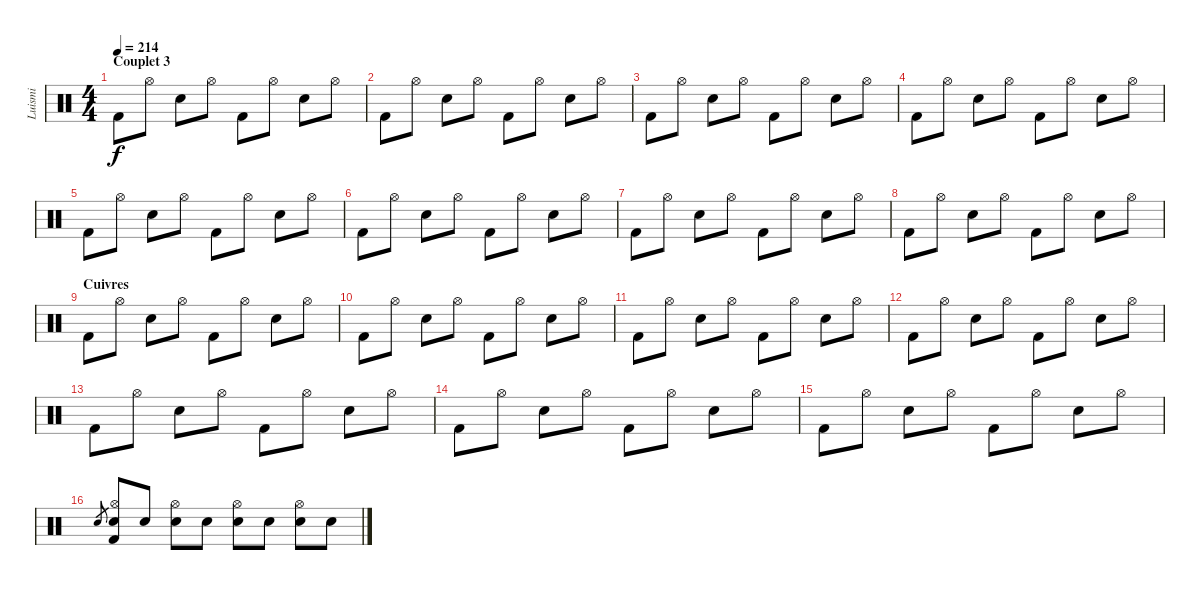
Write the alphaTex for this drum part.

\track ("Luismi" "Luismi") {instrument percussion}
\staff {score}
\articulation defaults
\ts (4 4)
\section ("" "Couplet 3")
\tempo 214
\clef neutral
\ks c "Kick (hit) 2".8{dy f} "Hi-Hat (open)".8 "Snare (hit) 2".8 "Hi-Hat (open)".8 "Kick (hit) 2".8 "Hi-Hat (open)".8 "Snare (hit) 2".8 "Hi-Hat (open)".8
|
"Kick (hit) 2".8 "Hi-Hat (open)".8 "Snare (hit) 2".8 "Hi-Hat (open)".8 "Kick (hit) 2".8 "Hi-Hat (open)".8 "Snare (hit) 2".8 "Hi-Hat (open)".8 |
"Kick (hit) 2".8 "Hi-Hat (open)".8 "Snare (hit) 2".8 "Hi-Hat (open)".8 "Kick (hit) 2".8 "Hi-Hat (open)".8 "Snare (hit) 2".8 "Hi-Hat (open)".8 |
"Kick (hit) 2".8 "Hi-Hat (open)".8 "Snare (hit) 2".8 "Hi-Hat (open)".8 "Kick (hit) 2".8 "Hi-Hat (open)".8 "Snare (hit) 2".8 "Hi-Hat (open)".8 |
"Kick (hit) 2".8 "Hi-Hat (open)".8 "Snare (hit) 2".8 "Hi-Hat (open)".8 "Kick (hit) 2".8 "Hi-Hat (open)".8 "Snare (hit) 2".8 "Hi-Hat (open)".8 |
"Kick (hit) 2".8 "Hi-Hat (open)".8 "Snare (hit) 2".8 "Hi-Hat (open)".8 "Kick (hit) 2".8 "Hi-Hat (open)".8 "Snare (hit) 2".8 "Hi-Hat (open)".8 |
"Kick (hit) 2".8 "Hi-Hat (open)".8 "Snare (hit) 2".8 "Hi-Hat (open)".8 "Kick (hit) 2".8 "Hi-Hat (open)".8 "Snare (hit) 2".8 "Hi-Hat (open)".8 |
"Kick (hit) 2".8 "Hi-Hat (open)".8 "Snare (hit) 2".8 "Hi-Hat (open)".8 "Kick (hit) 2".8 "Hi-Hat (open)".8 "Snare (hit) 2".8 "Hi-Hat (open)".8 |
\section ("" "Cuivres")
"Kick (hit) 2".8 "Hi-Hat (open)".8 "Snare (hit) 2".8 "Hi-Hat (open)".8 "Kick (hit) 2".8 "Hi-Hat (open)".8 "Snare (hit) 2".8 "Hi-Hat (open)".8 |
"Kick (hit) 2".8 "Hi-Hat (open)".8 "Snare (hit) 2".8 "Hi-Hat (open)".8 "Kick (hit) 2".8 "Hi-Hat (open)".8 "Snare (hit) 2".8 "Hi-Hat (open)".8 |
"Kick (hit) 2".8 "Hi-Hat (open)".8 "Snare (hit) 2".8 "Hi-Hat (open)".8 "Kick (hit) 2".8 "Hi-Hat (open)".8 "Snare (hit) 2".8 "Hi-Hat (open)".8 |
"Kick (hit) 2".8 "Hi-Hat (open)".8 "Snare (hit) 2".8 "Hi-Hat (open)".8 "Kick (hit) 2".8 "Hi-Hat (open)".8 "Snare (hit) 2".8 "Hi-Hat (open)".8 |
"Kick (hit) 2".8 "Hi-Hat (open)".8 "Snare (hit) 2".8 "Hi-Hat (open)".8 "Kick (hit) 2".8 "Hi-Hat (open)".8 "Snare (hit) 2".8 "Hi-Hat (open)".8 |
"Kick (hit) 2".8 "Hi-Hat (open)".8 "Snare (hit) 2".8 "Hi-Hat (open)".8 "Kick (hit) 2".8 "Hi-Hat (open)".8 "Snare (hit) 2".8 "Hi-Hat (open)".8 |
"Kick (hit) 2".8 "Hi-Hat (open)".8 "Snare (hit) 2".8 "Hi-Hat (open)".8 "Kick (hit) 2".8 "Hi-Hat (open)".8 "Snare (hit) 2".8 "Hi-Hat (open)".8 |
"Snare (hit) 2".8{gr} ("Hi-Hat (open)" "Snare (hit) 2" "Kick (hit) 2").8 "Snare (hit) 2".8 ("Hi-Hat (open)" "Snare (hit) 2").8 "Snare (hit) 2".8 ("Hi-Hat (open)" "Snare (hit) 2").8 "Snare (hit) 2".8 ("Hi-Hat (open)" "Snare (hit) 2").8 "Snare (hit) 2".8
